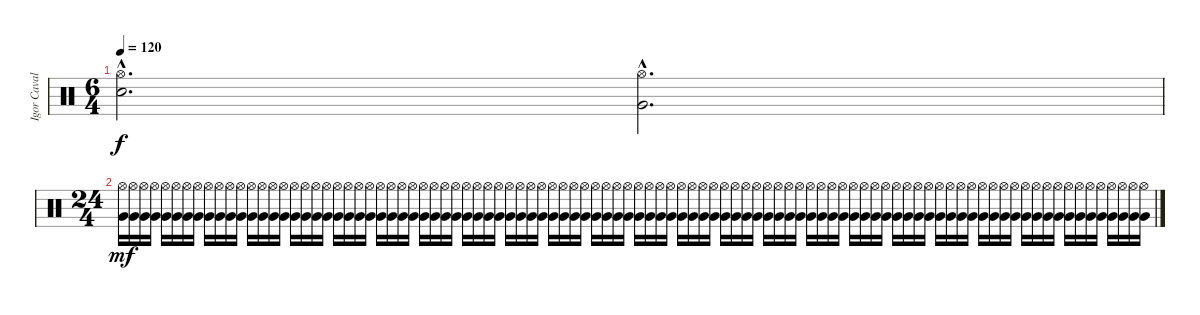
\track ("Igor Cavalera" "Igor Caval") {instrument percussion}
\staff {score}
\articulation defaults
\ts (6 4)
\tempo 120
\clef neutral
\ks c
("Hi-Hat (open)"{hac} "Snare (hit) 2"{hac}).2{d dy f} ("Hi-Hat (open)"{hac} "Very Low Tom (hit)"{hac}).2{d} |
\ts (24 4)
("Hi-Hat (open)" "Very Low Tom (hit)").16{dy mf volume 16} ("Hi-Hat (open)" "Very Low Tom (hit)").16 ("Hi-Hat (open)" "Very Low Tom (hit)").16 ("Hi-Hat (open)" "Very Low Tom (hit)").16 ("Hi-Hat (open)" "Very Low Tom (hit)").16 ("Hi-Hat (open)" "Very Low Tom (hit)").16 ("Hi-Hat (open)" "Very Low Tom (hit)").16{volume 15} ("Hi-Hat (open)" "Very Low Tom (hit)").16 ("Hi-Hat (open)" "Very Low Tom (hit)").16 ("Hi-Hat (open)" "Very Low Tom (hit)").16 ("Hi-Hat (open)" "Very Low Tom (hit)").16 ("Hi-Hat (open)" "Very Low Tom (hit)").16 ("Hi-Hat (open)" "Very Low Tom (hit)").16{volume 14} ("Hi-Hat (open)" "Very Low Tom (hit)").16 ("Hi-Hat (open)" "Very Low Tom (hit)").16 ("Hi-Hat (open)" "Very Low Tom (hit)").16 ("Hi-Hat (open)" "Very Low Tom (hit)").16 ("Hi-Hat (open)" "Very Low Tom (hit)").16 ("Hi-Hat (open)" "Very Low Tom (hit)").16{volume 13} ("Hi-Hat (open)" "Very Low Tom (hit)").16 ("Hi-Hat (open)" "Very Low Tom (hit)").16 ("Hi-Hat (open)" "Very Low Tom (hit)").16 ("Hi-Hat (open)" "Very Low Tom (hit)").16 ("Hi-Hat (open)" "Very Low Tom (hit)").16 ("Hi-Hat (open)" "Very Low Tom (hit)").16{volume 12} ("Hi-Hat (open)" "Very Low Tom (hit)").16 ("Hi-Hat (open)" "Very Low Tom (hit)").16 ("Hi-Hat (open)" "Very Low Tom (hit)").16 ("Hi-Hat (open)" "Very Low Tom (hit)").16 ("Hi-Hat (open)" "Very Low Tom (hit)").16 ("Hi-Hat (open)" "Very Low Tom (hit)").16{volume 11} ("Hi-Hat (open)" "Very Low Tom (hit)").16 ("Hi-Hat (open)" "Very Low Tom (hit)").16 ("Hi-Hat (open)" "Very Low Tom (hit)").16 ("Hi-Hat (open)" "Very Low Tom (hit)").16 ("Hi-Hat (open)" "Very Low Tom (hit)").16 ("Hi-Hat (open)" "Very Low Tom (hit)").16{volume 10} ("Hi-Hat (open)" "Very Low Tom (hit)").16 ("Hi-Hat (open)" "Very Low Tom (hit)").16 ("Hi-Hat (open)" "Very Low Tom (hit)").16 ("Hi-Hat (open)" "Very Low Tom (hit)").16 ("Hi-Hat (open)" "Very Low Tom (hit)").16 ("Hi-Hat (open)" "Very Low Tom (hit)").16{volume 9} ("Hi-Hat (open)" "Very Low Tom (hit)").16 ("Hi-Hat (open)" "Very Low Tom (hit)").16 ("Hi-Hat (open)" "Very Low Tom (hit)").16 ("Hi-Hat (open)" "Very Low Tom (hit)").16 ("Hi-Hat (open)" "Very Low Tom (hit)").16 ("Hi-Hat (open)" "Very Low Tom (hit)").16{volume 8} ("Hi-Hat (open)" "Very Low Tom (hit)").16 ("Hi-Hat (open)" "Very Low Tom (hit)").16 ("Hi-Hat (open)" "Very Low Tom (hit)").16 ("Hi-Hat (open)" "Very Low Tom (hit)").16 ("Hi-Hat (open)" "Very Low Tom (hit)").16 ("Hi-Hat (open)" "Very Low Tom (hit)").16{volume 7} ("Hi-Hat (open)" "Very Low Tom (hit)").16 ("Hi-Hat (open)" "Very Low Tom (hit)").16 ("Hi-Hat (open)" "Very Low Tom (hit)").16 ("Hi-Hat (open)" "Very Low Tom (hit)").16 ("Hi-Hat (open)" "Very Low Tom (hit)").16 ("Hi-Hat (open)" "Very Low Tom (hit)").16{volume 6} ("Hi-Hat (open)" "Very Low Tom (hit)").16 ("Hi-Hat (open)" "Very Low Tom (hit)").16 ("Hi-Hat (open)" "Very Low Tom (hit)").16 ("Hi-Hat (open)" "Very Low Tom (hit)").16 ("Hi-Hat (open)" "Very Low Tom (hit)").16 ("Hi-Hat (open)" "Very Low Tom (hit)").16{volume 5} ("Hi-Hat (open)" "Very Low Tom (hit)").16 ("Hi-Hat (open)" "Very Low Tom (hit)").16 ("Hi-Hat (open)" "Very Low Tom (hit)").16 ("Hi-Hat (open)" "Very Low Tom (hit)").16 ("Hi-Hat (open)" "Very Low Tom (hit)").16 ("Hi-Hat (open)" "Very Low Tom (hit)").16{volume 4} ("Hi-Hat (open)" "Very Low Tom (hit)").16 ("Hi-Hat (open)" "Very Low Tom (hit)").16 ("Hi-Hat (open)" "Very Low Tom (hit)").16 ("Hi-Hat (open)" "Very Low Tom (hit)").16 ("Hi-Hat (open)" "Very Low Tom (hit)").16 ("Hi-Hat (open)" "Very Low Tom (hit)").16{volume 3} ("Hi-Hat (open)" "Very Low Tom (hit)").16 ("Hi-Hat (open)" "Very Low Tom (hit)").16 ("Hi-Hat (open)" "Very Low Tom (hit)").16 ("Hi-Hat (open)" "Very Low Tom (hit)").16 ("Hi-Hat (open)" "Very Low Tom (hit)").16 ("Hi-Hat (open)" "Very Low Tom (hit)").16{volume 2} ("Hi-Hat (open)" "Very Low Tom (hit)").16 ("Hi-Hat (open)" "Very Low Tom (hit)").16 ("Hi-Hat (open)" "Very Low Tom (hit)").16 ("Hi-Hat (open)" "Very Low Tom (hit)").16 ("Hi-Hat (open)" "Very Low Tom (hit)").16 ("Hi-Hat (open)" "Very Low Tom (hit)").16{volume 1} ("Hi-Hat (open)" "Very Low Tom (hit)").16 ("Hi-Hat (open)" "Very Low Tom (hit)").16 ("Hi-Hat (open)" "Very Low Tom (hit)").16 ("Hi-Hat (open)" "Very Low Tom (hit)").16 ("Hi-Hat (open)" "Very Low Tom (hit)").16
